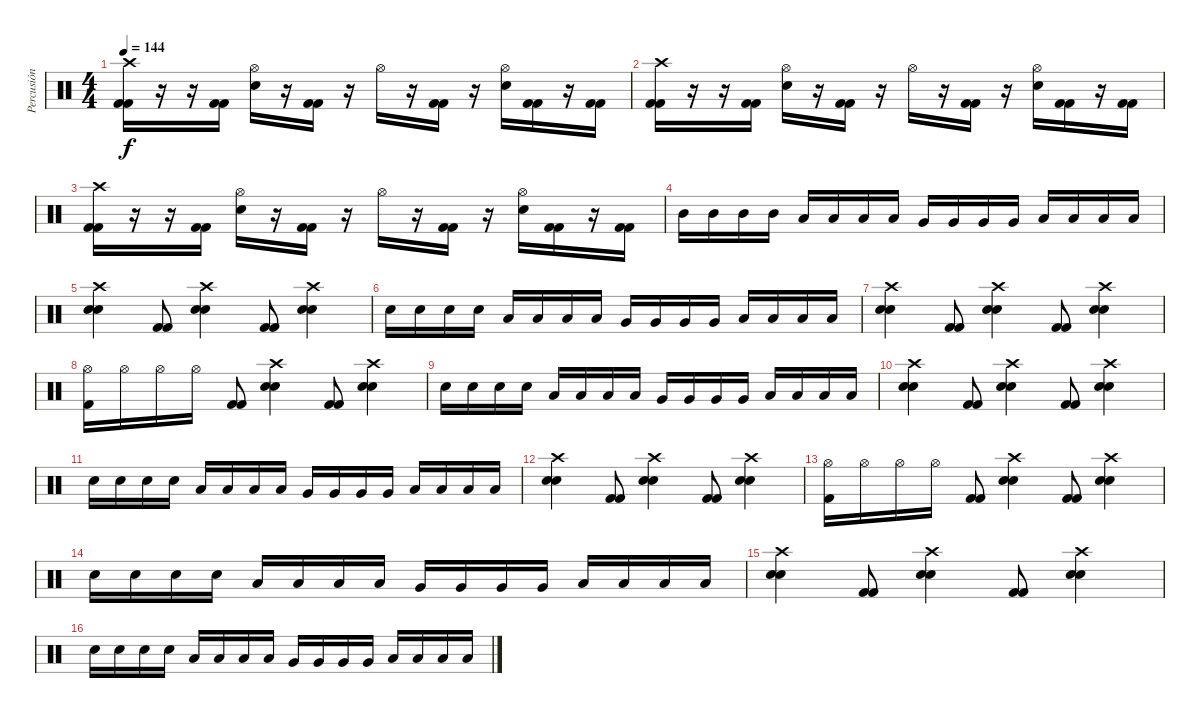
\track ("Percusión" "Percusión") {instrument percussion}
\staff {score}
\articulation defaults
\ts (4 4)
\tempo 144
\clef neutral
\ks c
("Crash high (hit)" "Kick (hit) 2" "Kick (hit) 2").16{dy f} r.16 r.16 ("Kick (hit) 2" "Kick (hit) 2").16 ("Hi-Hat (open)" "Snare (hit) 2").16 r.16 ("Kick (hit) 2" "Kick (hit) 2").16 r.16 "Hi-Hat (open)".16 r.16 ("Kick (hit) 2" "Kick (hit) 2").16 r.16 ("Hi-Hat (open)" "Snare (hit) 2").16 ("Kick (hit) 2" "Kick (hit) 2").16 r.16 ("Kick (hit) 2" "Kick (hit) 2").16 |
("Crash high (hit)" "Kick (hit) 2" "Kick (hit) 2").16 r.16 r.16 ("Kick (hit) 2" "Kick (hit) 2").16 ("Hi-Hat (open)" "Snare (hit) 2").16 r.16 ("Kick (hit) 2" "Kick (hit) 2").16 r.16 "Hi-Hat (open)".16 r.16 ("Kick (hit) 2" "Kick (hit) 2").16 r.16 ("Hi-Hat (open)" "Snare (hit) 2").16 ("Kick (hit) 2" "Kick (hit) 2").16 r.16 ("Kick (hit) 2" "Kick (hit) 2").16 |
("Crash high (hit)" "Kick (hit) 2" "Kick (hit) 2").16 r.16 r.16 ("Kick (hit) 2" "Kick (hit) 2").16 ("Hi-Hat (open)" "Snare (hit) 2").16 r.16 ("Kick (hit) 2" "Kick (hit) 2").16 r.16 "Hi-Hat (open)".16 r.16 ("Kick (hit) 2" "Kick (hit) 2").16 r.16 ("Hi-Hat (open)" "Snare (hit) 2").16 ("Kick (hit) 2" "Kick (hit) 2").16 r.16 ("Kick (hit) 2" "Kick (hit) 2").16 |
"Mid Tom (hit)".16 "Mid Tom (hit)".16 "Mid Tom (hit)".16 "Mid Tom (hit)".16 "Low Tom (hit)".16 "Low Tom (hit)".16 "Low Tom (hit)".16 "Low Tom (hit)".16 "Very Low Tom (hit)".16 "Very Low Tom (hit)".16 "Very Low Tom (hit)".16 "Very Low Tom (hit)".16 "Low Floor Tom (hit)".16 "Low Floor Tom (hit)".16 "Low Floor Tom (hit)".16 "Low Floor Tom (hit)".16 |
("Crash high (hit)" "Snare (hit) 2" "Snare (hit) 2").4 ("Kick (hit) 2" "Kick (hit) 2").8 ("Crash high (hit)" "Snare (hit) 2" "Snare (hit) 2").4 ("Kick (hit) 2" "Kick (hit) 2").8 ("Crash high (hit)" "Snare (hit) 2" "Snare (hit) 2").4 |
"Snare (hit) 2".16 "Snare (hit) 2".16 "Snare (hit) 2".16 "Snare (hit) 2".16 "Low Tom (hit)".16 "Low Tom (hit)".16 "Low Tom (hit)".16 "Low Tom (hit)".16 "Very Low Tom (hit)".16 "Very Low Tom (hit)".16 "Very Low Tom (hit)".16 "Very Low Tom (hit)".16 "Low Floor Tom (hit)".16 "Low Floor Tom (hit)".16 "Low Floor Tom (hit)".16 "Low Floor Tom (hit)".16 |
("Crash high (hit)" "Snare (hit) 2" "Snare (hit) 2").4 ("Kick (hit) 2" "Kick (hit) 2").8 ("Crash high (hit)" "Snare (hit) 2" "Snare (hit) 2").4 ("Kick (hit) 2" "Kick (hit) 2").8 ("Crash high (hit)" "Snare (hit) 2" "Snare (hit) 2").4 |
("Hi-Hat (open)" "Kick (hit) 2").16 "Hi-Hat (open)".16 "Hi-Hat (open)".16 "Hi-Hat (open)".16 ("Kick (hit) 2" "Kick (hit) 2").8 ("Crash high (hit)" "Snare (hit) 2" "Snare (hit) 2").4 ("Kick (hit) 2" "Kick (hit) 2").8 ("Crash high (hit)" "Snare (hit) 2" "Snare (hit) 2").4 |
"Snare (hit) 2".16 "Snare (hit) 2".16 "Snare (hit) 2".16 "Snare (hit) 2".16 "Low Tom (hit)".16 "Low Tom (hit)".16 "Low Tom (hit)".16 "Low Tom (hit)".16 "Very Low Tom (hit)".16 "Very Low Tom (hit)".16 "Very Low Tom (hit)".16 "Very Low Tom (hit)".16 "Low Floor Tom (hit)".16 "Low Floor Tom (hit)".16 "Low Floor Tom (hit)".16 "Low Floor Tom (hit)".16 |
("Crash high (hit)" "Snare (hit) 2" "Snare (hit) 2").4 ("Kick (hit) 2" "Kick (hit) 2").8 ("Crash high (hit)" "Snare (hit) 2" "Snare (hit) 2").4 ("Kick (hit) 2" "Kick (hit) 2").8 ("Crash high (hit)" "Snare (hit) 2" "Snare (hit) 2").4 |
"Snare (hit) 2".16 "Snare (hit) 2".16 "Snare (hit) 2".16 "Snare (hit) 2".16 "Low Tom (hit)".16 "Low Tom (hit)".16 "Low Tom (hit)".16 "Low Tom (hit)".16 "Very Low Tom (hit)".16 "Very Low Tom (hit)".16 "Very Low Tom (hit)".16 "Very Low Tom (hit)".16 "Low Floor Tom (hit)".16 "Low Floor Tom (hit)".16 "Low Floor Tom (hit)".16 "Low Floor Tom (hit)".16 |
("Crash high (hit)" "Snare (hit) 2" "Snare (hit) 2").4 ("Kick (hit) 2" "Kick (hit) 2").8 ("Crash high (hit)" "Snare (hit) 2" "Snare (hit) 2").4 ("Kick (hit) 2" "Kick (hit) 2").8 ("Crash high (hit)" "Snare (hit) 2" "Snare (hit) 2").4 |
("Hi-Hat (open)" "Kick (hit) 2").16 "Hi-Hat (open)".16 "Hi-Hat (open)".16 "Hi-Hat (open)".16 ("Kick (hit) 2" "Kick (hit) 2").8 ("Crash high (hit)" "Snare (hit) 2" "Snare (hit) 2").4 ("Kick (hit) 2" "Kick (hit) 2").8 ("Crash high (hit)" "Snare (hit) 2" "Snare (hit) 2").4 |
"Snare (hit) 2".16 "Snare (hit) 2".16 "Snare (hit) 2".16 "Snare (hit) 2".16 "Low Tom (hit)".16 "Low Tom (hit)".16 "Low Tom (hit)".16 "Low Tom (hit)".16 "Very Low Tom (hit)".16 "Very Low Tom (hit)".16 "Very Low Tom (hit)".16 "Very Low Tom (hit)".16 "Low Floor Tom (hit)".16 "Low Floor Tom (hit)".16 "Low Floor Tom (hit)".16 "Low Floor Tom (hit)".16 |
("Crash high (hit)" "Snare (hit) 2" "Snare (hit) 2").4 ("Kick (hit) 2" "Kick (hit) 2").8 ("Crash high (hit)" "Snare (hit) 2" "Snare (hit) 2").4 ("Kick (hit) 2" "Kick (hit) 2").8 ("Crash high (hit)" "Snare (hit) 2" "Snare (hit) 2").4 |
"Snare (hit) 2".16 "Snare (hit) 2".16 "Snare (hit) 2".16 "Snare (hit) 2".16 "Low Tom (hit)".16 "Low Tom (hit)".16 "Low Tom (hit)".16 "Low Tom (hit)".16 "Very Low Tom (hit)".16 "Very Low Tom (hit)".16 "Very Low Tom (hit)".16 "Very Low Tom (hit)".16 "Low Floor Tom (hit)".16 "Low Floor Tom (hit)".16 "Low Floor Tom (hit)".16 "Low Floor Tom (hit)".16
